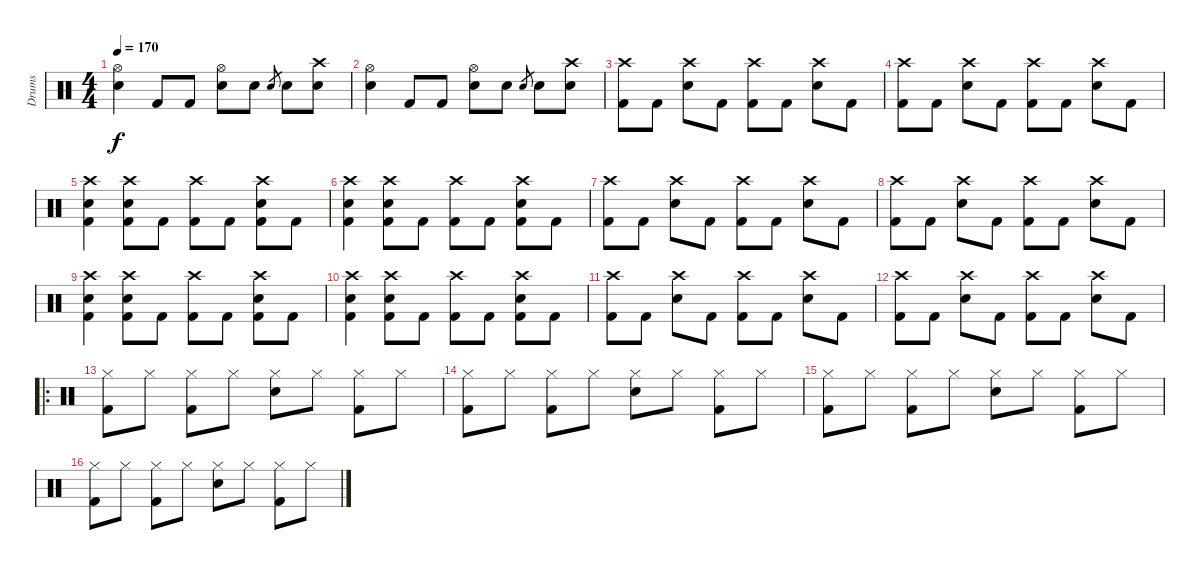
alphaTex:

\track ("Drums" "Drums") {instrument percussion}
\staff {score}
\articulation defaults
\ts (4 4)
\tempo 170
\clef neutral
\ks c
("Hi-Hat (open)" "Snare (hit) 2").4{dy f} "Kick (hit) 2".8 "Kick (hit) 2".8 ("Hi-Hat (open)" "Snare (hit) 2").8 "Snare (hit) 2".8 "Snare (hit) 2".8{gr} "Snare (hit) 2".8 ("Crash high (hit)" "Snare (hit) 2").8 |
("Hi-Hat (open)" "Snare (hit) 2").4 "Kick (hit) 2".8 "Kick (hit) 2".8 ("Hi-Hat (open)" "Snare (hit) 2").8 "Snare (hit) 2".8 "Snare (hit) 2".8{gr} "Snare (hit) 2".8 ("Crash high (hit)" "Snare (hit) 2").8 |
("Crash high (hit)" "Kick (hit) 2").8 "Kick (hit) 2".8 ("Crash high (hit)" "Snare (hit) 2").8 "Kick (hit) 2".8 ("Crash high (hit)" "Kick (hit) 2").8 "Kick (hit) 2".8 ("Crash high (hit)" "Snare (hit) 2").8 "Kick (hit) 2".8 |
("Crash high (hit)" "Kick (hit) 2").8 "Kick (hit) 2".8 ("Crash high (hit)" "Snare (hit) 2").8 "Kick (hit) 2".8 ("Crash high (hit)" "Kick (hit) 2").8 "Kick (hit) 2".8 ("Crash high (hit)" "Snare (hit) 2").8 "Kick (hit) 2".8 |
("Crash high (hit)" "Snare (hit) 2" "Kick (hit) 2").4 ("Crash high (hit)" "Snare (hit) 2" "Kick (hit) 2").8 "Kick (hit) 2".8 ("Crash high (hit)" "Kick (hit) 2").8 "Kick (hit) 2".8 ("Crash high (hit)" "Snare (hit) 2" "Kick (hit) 2").8 "Kick (hit) 2".8 |
("Crash high (hit)" "Snare (hit) 2" "Kick (hit) 2").4 ("Crash high (hit)" "Snare (hit) 2" "Kick (hit) 2").8 "Kick (hit) 2".8 ("Crash high (hit)" "Kick (hit) 2").8 "Kick (hit) 2".8 ("Crash high (hit)" "Snare (hit) 2" "Kick (hit) 2").8 "Kick (hit) 2".8 |
("Crash high (hit)" "Kick (hit) 2").8 "Kick (hit) 2".8 ("Crash high (hit)" "Snare (hit) 2").8 "Kick (hit) 2".8 ("Crash high (hit)" "Kick (hit) 2").8 "Kick (hit) 2".8 ("Crash high (hit)" "Snare (hit) 2").8 "Kick (hit) 2".8 |
("Crash high (hit)" "Kick (hit) 2").8 "Kick (hit) 2".8 ("Crash high (hit)" "Snare (hit) 2").8 "Kick (hit) 2".8 ("Crash high (hit)" "Kick (hit) 2").8 "Kick (hit) 2".8 ("Crash high (hit)" "Snare (hit) 2").8 "Kick (hit) 2".8 |
("Crash high (hit)" "Snare (hit) 2" "Kick (hit) 2").4 ("Crash high (hit)" "Snare (hit) 2" "Kick (hit) 2").8 "Kick (hit) 2".8 ("Crash high (hit)" "Kick (hit) 2").8 "Kick (hit) 2".8 ("Crash high (hit)" "Snare (hit) 2" "Kick (hit) 2").8 "Kick (hit) 2".8 |
("Crash high (hit)" "Snare (hit) 2" "Kick (hit) 2").4 ("Crash high (hit)" "Snare (hit) 2" "Kick (hit) 2").8 "Kick (hit) 2".8 ("Crash high (hit)" "Kick (hit) 2").8 "Kick (hit) 2".8 ("Crash high (hit)" "Snare (hit) 2" "Kick (hit) 2").8 "Kick (hit) 2".8 |
("Crash high (hit)" "Kick (hit) 2").8 "Kick (hit) 2".8 ("Crash high (hit)" "Snare (hit) 2").8 "Kick (hit) 2".8 ("Crash high (hit)" "Kick (hit) 2").8 "Kick (hit) 2".8 ("Crash high (hit)" "Snare (hit) 2").8 "Kick (hit) 2".8 |
("Crash high (hit)" "Kick (hit) 2").8 "Kick (hit) 2".8 ("Crash high (hit)" "Snare (hit) 2").8 "Kick (hit) 2".8 ("Crash high (hit)" "Kick (hit) 2").8 "Kick (hit) 2".8 ("Crash high (hit)" "Snare (hit) 2").8 "Kick (hit) 2".8 |
\ro
("Hi-Hat (closed)" "Kick (hit) 2").8 "Hi-Hat (closed)".8 ("Hi-Hat (closed)" "Kick (hit) 2").8 "Hi-Hat (closed)".8 ("Hi-Hat (closed)" "Snare (hit) 2").8 "Hi-Hat (closed)".8 ("Hi-Hat (closed)" "Kick (hit) 2").8 "Hi-Hat (closed)".8 |
("Hi-Hat (closed)" "Kick (hit) 2").8 "Hi-Hat (closed)".8 ("Hi-Hat (closed)" "Kick (hit) 2").8 "Hi-Hat (closed)".8 ("Hi-Hat (closed)" "Snare (hit) 2").8 "Hi-Hat (closed)".8 ("Hi-Hat (closed)" "Kick (hit) 2").8 "Hi-Hat (closed)".8 |
("Hi-Hat (closed)" "Kick (hit) 2").8 "Hi-Hat (closed)".8 ("Hi-Hat (closed)" "Kick (hit) 2").8 "Hi-Hat (closed)".8 ("Hi-Hat (closed)" "Snare (hit) 2").8 "Hi-Hat (closed)".8 ("Hi-Hat (closed)" "Kick (hit) 2").8 "Hi-Hat (closed)".8 |
("Hi-Hat (closed)" "Kick (hit) 2").8 "Hi-Hat (closed)".8 ("Hi-Hat (closed)" "Kick (hit) 2").8 "Hi-Hat (closed)".8 ("Hi-Hat (closed)" "Snare (hit) 2").8 "Hi-Hat (closed)".8 ("Hi-Hat (closed)" "Kick (hit) 2").8 "Hi-Hat (closed)".8
